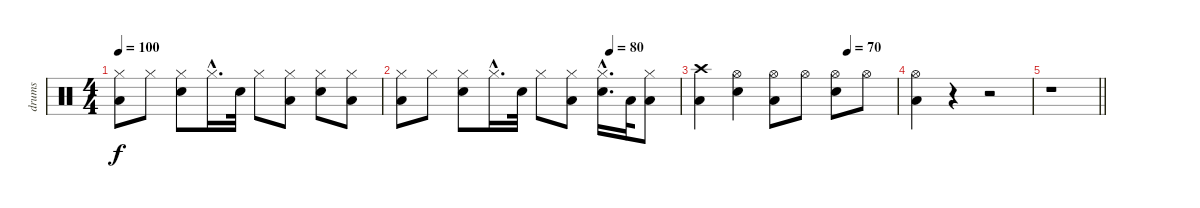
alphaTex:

\track ("drums" "drums") {instrument percussion}
\staff {score}
\articulation defaults
\ts (4 4)
\tempo 100
\clef neutral
\ks c
("Hi-Hat (closed)" "Low Floor Tom (hit)").8{dy f} "Hi-Hat (closed)".8 ("Hi-Hat (closed)" "Electric Snare (hit)").8 "Hi-Hat (closed)"{hac}.16{d} "Electric Snare (hit)".32 "Hi-Hat (closed)".8 ("Hi-Hat (closed)" "Low Floor Tom (hit)").8 ("Hi-Hat (closed)" "Electric Snare (hit)").8 ("Hi-Hat (closed)" "Low Floor Tom (hit)").8 |
\tempo (80 0.75)
("Hi-Hat (closed)" "Low Floor Tom (hit)").8 "Hi-Hat (closed)".8 ("Hi-Hat (closed)" "Electric Snare (hit)").8 "Hi-Hat (closed)"{hac}.16{d} "Electric Snare (hit)".32 "Hi-Hat (closed)".8 ("Hi-Hat (closed)" "Low Floor Tom (hit)").8 ("Hi-Hat (closed)"{hac} "Electric Snare (hit)"{hac}).16{d} "Low Floor Tom (hit)".32 ("Hi-Hat (closed)" "Low Floor Tom (hit)").8 |
\tempo (70 0.75)
("Crash high (hit)" "Low Floor Tom (hit)").4 ("Hi-Hat (open)" "Electric Snare (hit)").4 ("Hi-Hat (open)" "Low Floor Tom (hit)").8 "Hi-Hat (open)".8 ("Hi-Hat (open)" "Electric Snare (hit)").8 "Hi-Hat (open)".8 |
("Hi-Hat (open)" "Low Floor Tom (hit)").4 r.4 r.2 |
\barLineRight lightlight
r.1
